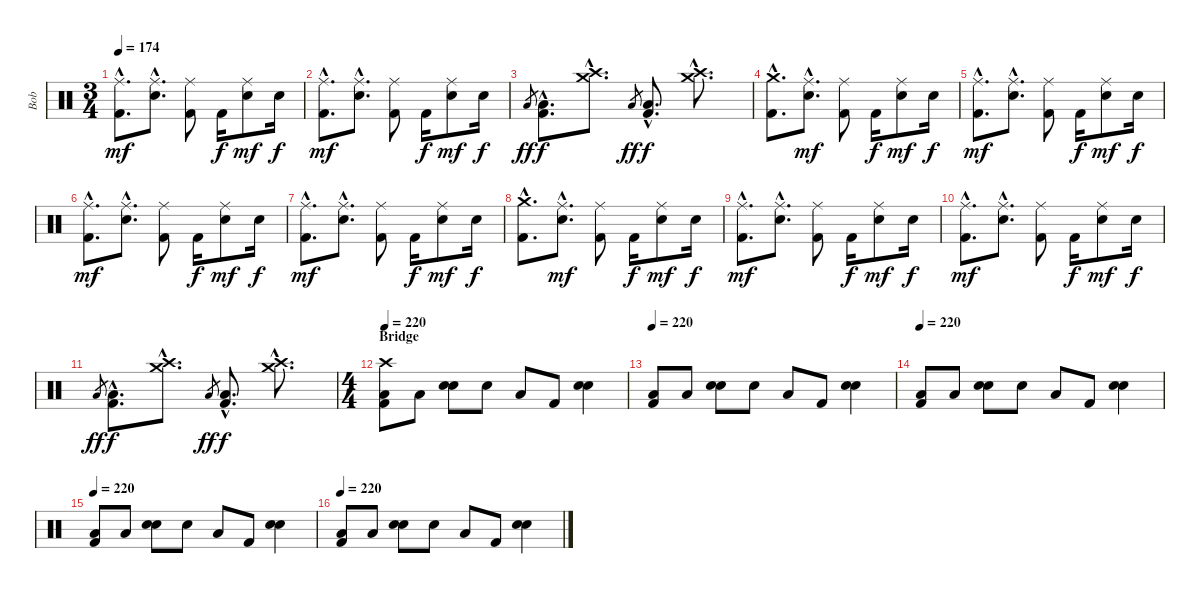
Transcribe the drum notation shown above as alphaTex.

\track ("Bob" "Bob") {instrument percussion}
\staff {score}
\articulation defaults
\ts (3 4)
\tempo 174
\clef neutral
\ks c
("Ride (middle)"{hac} "Kick (hit) 2"{hac}).8{d dy mf} ("Ride (middle)"{hac} "Electric Snare (hit)"{hac}).8{d} ("Ride (middle)" "Kick (hit) 2").8 "Kick (hit) 2".16{dy f} ("Ride (middle)" "Electric Snare (hit)").8{dy mf} "Electric Snare (hit)".16{dy f} |
("Ride (middle)"{hac} "Kick (hit) 2"{hac}).8{d dy mf} ("Ride (middle)"{hac} "Electric Snare (hit)"{hac}).8{d} ("Ride (middle)" "Kick (hit) 2").8 "Kick (hit) 2".16{dy f} ("Ride (middle)" "Electric Snare (hit)").8{dy mf} "Electric Snare (hit)".16{dy f} |
"Low Floor Tom (hit)".8{gr dy ff} ("Low Floor Tom (hit)"{hac} "Kick (hit) 2"{hac}).8{d dy f} ("Crash medium (hit)"{hac} "Crash high (hit)"{hac}).8{d} "Low Floor Tom (hit)".8{gr dy ff} ("Low Floor Tom (hit)"{hac} "Kick (hit) 2"{hac}).8{d dy f} ("Crash medium (hit)"{hac} "Crash high (hit)"{hac}).8{d} |
("Crash medium (hit)"{hac} "Kick (hit) 2"{hac}).8{d} ("Ride (middle)"{hac} "Electric Snare (hit)"{hac}).8{d dy mf} ("Ride (middle)" "Kick (hit) 2").8 "Kick (hit) 2".16{dy f} ("Ride (middle)" "Electric Snare (hit)").8{dy mf} "Electric Snare (hit)".16{dy f} |
("Ride (middle)"{hac} "Kick (hit) 2"{hac}).8{d dy mf} ("Ride (middle)"{hac} "Electric Snare (hit)"{hac}).8{d} ("Ride (middle)" "Kick (hit) 2").8 "Kick (hit) 2".16{dy f} ("Ride (middle)" "Electric Snare (hit)").8{dy mf} "Electric Snare (hit)".16{dy f} |
("Ride (middle)"{hac} "Kick (hit) 2"{hac}).8{d dy mf} ("Ride (middle)"{hac} "Electric Snare (hit)"{hac}).8{d} ("Ride (middle)" "Kick (hit) 2").8 "Kick (hit) 2".16{dy f} ("Ride (middle)" "Electric Snare (hit)").8{dy mf} "Electric Snare (hit)".16{dy f} |
("Ride (middle)"{hac} "Kick (hit) 2"{hac}).8{d dy mf} ("Ride (middle)"{hac} "Electric Snare (hit)"{hac}).8{d} ("Ride (middle)" "Kick (hit) 2").8 "Kick (hit) 2".16{dy f} ("Ride (middle)" "Electric Snare (hit)").8{dy mf} "Electric Snare (hit)".16{dy f} |
("Crash medium (hit)"{hac} "Kick (hit) 2"{hac}).8{d} ("Ride (middle)"{hac} "Electric Snare (hit)"{hac}).8{d dy mf} ("Ride (middle)" "Kick (hit) 2").8 "Kick (hit) 2".16{dy f} ("Ride (middle)" "Electric Snare (hit)").8{dy mf} "Electric Snare (hit)".16{dy f} |
("Ride (middle)"{hac} "Kick (hit) 2"{hac}).8{d dy mf} ("Ride (middle)"{hac} "Electric Snare (hit)"{hac}).8{d} ("Ride (middle)" "Kick (hit) 2").8 "Kick (hit) 2".16{dy f} ("Ride (middle)" "Electric Snare (hit)").8{dy mf} "Electric Snare (hit)".16{dy f} |
("Ride (middle)"{hac} "Kick (hit) 2"{hac}).8{d dy mf} ("Ride (middle)"{hac} "Electric Snare (hit)"{hac}).8{d} ("Ride (middle)" "Kick (hit) 2").8 "Kick (hit) 2".16{dy f} ("Ride (middle)" "Electric Snare (hit)").8{dy mf} "Electric Snare (hit)".16{dy f} |
"Low Floor Tom (hit)".8{gr dy ff} ("Low Floor Tom (hit)"{hac} "Kick (hit) 2"{hac}).8{d dy f} ("Crash medium (hit)"{hac} "Crash high (hit)"{hac}).8{d} "Low Floor Tom (hit)".8{gr dy ff} ("Low Floor Tom (hit)"{hac} "Kick (hit) 2"{hac}).8{d dy f} ("Crash medium (hit)"{hac} "Crash high (hit)"{hac}).8{d} |
\ts (4 4)
\section ("" "Bridge")
\tempo 220
("Crash high (hit)" "Low Floor Tom (hit)" "Kick (hit) 2").8 "Low Floor Tom (hit)".8 ("Hand Clap (hit)" "Electric Snare (hit)").8 "Hand Clap (hit)".8 "Low Floor Tom (hit)".8 "Kick (hit) 2".8 ("Hand Clap (hit)" "Electric Snare (hit)").4 |
\tempo 220
("Low Floor Tom (hit)" "Kick (hit) 2").8 "Low Floor Tom (hit)".8 ("Hand Clap (hit)" "Electric Snare (hit)").8 "Hand Clap (hit)".8 "Low Floor Tom (hit)".8 "Kick (hit) 2".8 ("Hand Clap (hit)" "Electric Snare (hit)").4 |
\tempo 220
("Low Floor Tom (hit)" "Kick (hit) 2").8 "Low Floor Tom (hit)".8 ("Hand Clap (hit)" "Electric Snare (hit)").8 "Hand Clap (hit)".8 "Low Floor Tom (hit)".8 "Kick (hit) 2".8 ("Hand Clap (hit)" "Electric Snare (hit)").4 |
\tempo 220
("Low Floor Tom (hit)" "Kick (hit) 2").8 "Low Floor Tom (hit)".8 ("Hand Clap (hit)" "Electric Snare (hit)").8 "Hand Clap (hit)".8 "Low Floor Tom (hit)".8 "Kick (hit) 2".8 ("Hand Clap (hit)" "Electric Snare (hit)").4 |
\tempo 220
("Low Floor Tom (hit)" "Kick (hit) 2").8 "Low Floor Tom (hit)".8 ("Hand Clap (hit)" "Electric Snare (hit)").8 "Hand Clap (hit)".8 "Low Floor Tom (hit)".8 "Kick (hit) 2".8 ("Hand Clap (hit)" "Electric Snare (hit)").4
